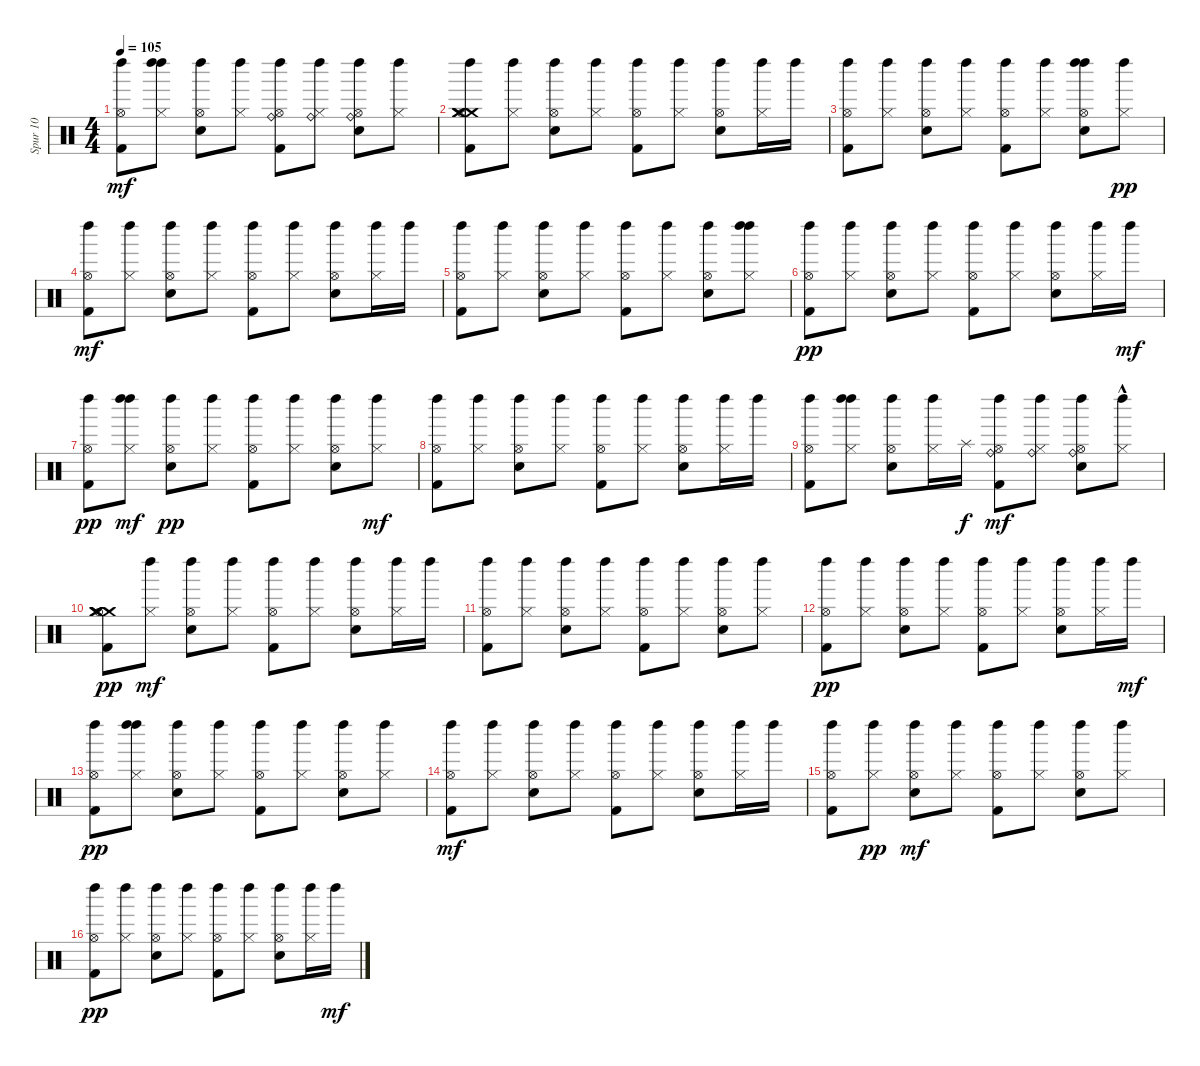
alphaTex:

\track ("Spur 10" "Spur 10") {instrument percussion}
\staff {score}
\articulation defaults
\ts (4 4)
\tempo 105
\clef neutral
\ks c
("Hi-Hat (open)" "Kick (hit) 2" "Left Maraca (hit)").8{dy mf} ("Hi-Hat (closed)" "Left Maraca (hit)" "Left Maraca (hit)").8 ("Hi-Hat (open)" "Snare (hit) 2" "Left Maraca (hit)").8 ("Hi-Hat (closed)" "Left Maraca (hit)").8 ("Hi-Hat (open)" "Kick (hit) 2" "Left Maraca (hit)" "Ride (bell)").8 ("Hi-Hat (closed)" "Left Maraca (hit)" "Ride (bell)").8 ("Hi-Hat (open)" "Snare (hit) 2" "Left Maraca (hit)" "Ride (bell)").8 ("Hi-Hat (closed)" "Left Maraca (hit)").8 |
("Crash medium (hit)" "Kick (hit) 2" "Hi-Hat (open)" "Crash medium (hit)" "Crash medium (hit)" "Left Maraca (hit)").8 ("Hi-Hat (closed)" "Left Maraca (hit)").8 ("Snare (hit) 2" "Hi-Hat (open)" "Left Maraca (hit)").8 ("Hi-Hat (closed)" "Left Maraca (hit)").8 ("Kick (hit) 2" "Hi-Hat (open)" "Left Maraca (hit)").8 ("Hi-Hat (closed)" "Left Maraca (hit)").8 ("Snare (hit) 2" "Hi-Hat (open)" "Left Maraca (hit)").8 ("Hi-Hat (closed)" "Left Maraca (hit)").16 "Left Maraca (hit)".16 |
("Kick (hit) 2" "Hi-Hat (open)" "Left Maraca (hit)").8 ("Hi-Hat (closed)" "Left Maraca (hit)").8 ("Snare (hit) 2" "Hi-Hat (open)" "Left Maraca (hit)").8 ("Hi-Hat (closed)" "Left Maraca (hit)").8 ("Kick (hit) 2" "Hi-Hat (open)" "Left Maraca (hit)").8 ("Hi-Hat (closed)" "Left Maraca (hit)").8 ("Snare (hit) 2" "Hi-Hat (open)" "Left Maraca (hit)" "Left Maraca (hit)").8 ("Left Maraca (hit)" "Hi-Hat (closed)").8{dy pp} |
("Hi-Hat (open)" "Kick (hit) 2" "Left Maraca (hit)").8{dy mf} ("Hi-Hat (closed)" "Left Maraca (hit)").8 ("Hi-Hat (open)" "Snare (hit) 2" "Left Maraca (hit)").8 ("Hi-Hat (closed)" "Left Maraca (hit)").8 ("Hi-Hat (open)" "Kick (hit) 2" "Left Maraca (hit)").8 ("Hi-Hat (closed)" "Left Maraca (hit)").8 ("Hi-Hat (open)" "Snare (hit) 2" "Left Maraca (hit)").8 ("Hi-Hat (closed)" "Left Maraca (hit)").16 "Left Maraca (hit)".16 |
("Hi-Hat (open)" "Kick (hit) 2" "Left Maraca (hit)").8 ("Hi-Hat (closed)" "Left Maraca (hit)").8 ("Hi-Hat (open)" "Snare (hit) 2" "Left Maraca (hit)").8 ("Hi-Hat (closed)" "Left Maraca (hit)").8 ("Hi-Hat (open)" "Kick (hit) 2" "Left Maraca (hit)").8 ("Hi-Hat (closed)" "Left Maraca (hit)").8 ("Hi-Hat (open)" "Snare (hit) 2" "Left Maraca (hit)").8 ("Hi-Hat (closed)" "Left Maraca (hit)" "Left Maraca (hit)").8 |
("Left Maraca (hit)" "Hi-Hat (open)" "Kick (hit) 2").8{dy pp} ("Left Maraca (hit)" "Hi-Hat (closed)").8 ("Left Maraca (hit)" "Hi-Hat (open)" "Snare (hit) 2").8 ("Left Maraca (hit)" "Hi-Hat (closed)").8 ("Left Maraca (hit)" "Hi-Hat (open)" "Kick (hit) 2").8 ("Left Maraca (hit)" "Hi-Hat (closed)").8 ("Left Maraca (hit)" "Hi-Hat (open)" "Snare (hit) 2").8 ("Left Maraca (hit)" "Hi-Hat (closed)").16 "Left Maraca (hit)".16{dy mf} |
("Left Maraca (hit)" "Hi-Hat (open)" "Kick (hit) 2").8{dy pp} ("Left Maraca (hit)" "Hi-Hat (closed)" "Left Maraca (hit)").8{dy mf} ("Left Maraca (hit)" "Hi-Hat (open)" "Snare (hit) 2").8{dy pp} ("Left Maraca (hit)" "Hi-Hat (closed)").8 ("Left Maraca (hit)" "Hi-Hat (open)" "Kick (hit) 2").8 ("Left Maraca (hit)" "Hi-Hat (closed)").8 ("Left Maraca (hit)" "Hi-Hat (open)" "Snare (hit) 2").8 ("Hi-Hat (closed)" "Left Maraca (hit)").8{dy mf} |
("Hi-Hat (open)" "Kick (hit) 2" "Left Maraca (hit)").8{volume 16 balance 8} ("Hi-Hat (closed)" "Left Maraca (hit)").8 ("Hi-Hat (open)" "Snare (hit) 2" "Left Maraca (hit)").8 ("Hi-Hat (closed)" "Left Maraca (hit)").8 ("Hi-Hat (open)" "Kick (hit) 2" "Left Maraca (hit)").8 ("Hi-Hat (closed)" "Left Maraca (hit)").8 ("Hi-Hat (open)" "Snare (hit) 2" "Left Maraca (hit)").8 ("Hi-Hat (closed)" "Left Maraca (hit)").16 "Left Maraca (hit)".16 |
("Hi-Hat (open)" "Kick (hit) 2" "Left Maraca (hit)").8 ("Hi-Hat (closed)" "Left Maraca (hit)" "Left Maraca (hit)").8 ("Hi-Hat (open)" "Snare (hit) 2" "Left Maraca (hit)").8 ("Hi-Hat (closed)" "Left Maraca (hit)").16 "Splash (hit)".16{dy f} ("Hi-Hat (open)" "Kick (hit) 2" "Left Maraca (hit)" "Ride (bell)").8{dy mf} ("Hi-Hat (closed)" "Left Maraca (hit)" "Ride (bell)").8 ("Hi-Hat (open)" "Snare (hit) 2" "Left Maraca (hit)" "Ride (bell)").8 ("Hi-Hat (closed)" "Left Maraca (hit)"{hac}).8 |
("Crash medium (hit)" "Crash medium (hit)" "Crash medium (hit)" "Crash medium (hit)" "Hi-Hat (open)" "Kick (hit) 2").8{dy pp} ("Hi-Hat (closed)" "Left Maraca (hit)").8{dy mf} ("Hi-Hat (open)" "Snare (hit) 2" "Left Maraca (hit)").8 ("Hi-Hat (closed)" "Left Maraca (hit)").8 ("Hi-Hat (open)" "Kick (hit) 2" "Left Maraca (hit)").8 ("Hi-Hat (closed)" "Left Maraca (hit)").8 ("Hi-Hat (open)" "Snare (hit) 2" "Left Maraca (hit)").8 ("Hi-Hat (closed)" "Left Maraca (hit)").16 "Left Maraca (hit)".16 |
("Hi-Hat (open)" "Kick (hit) 2" "Left Maraca (hit)").8 ("Hi-Hat (closed)" "Left Maraca (hit)").8 ("Hi-Hat (open)" "Snare (hit) 2" "Left Maraca (hit)").8 ("Hi-Hat (closed)" "Left Maraca (hit)").8 ("Hi-Hat (open)" "Kick (hit) 2" "Left Maraca (hit)").8 ("Hi-Hat (closed)" "Left Maraca (hit)").8 ("Hi-Hat (open)" "Snare (hit) 2" "Left Maraca (hit)").8 ("Hi-Hat (closed)" "Left Maraca (hit)").8 |
("Left Maraca (hit)" "Kick (hit) 2" "Hi-Hat (open)").8{dy pp} ("Left Maraca (hit)" "Hi-Hat (closed)").8 ("Left Maraca (hit)" "Snare (hit) 2" "Hi-Hat (open)").8 ("Left Maraca (hit)" "Hi-Hat (closed)").8 ("Left Maraca (hit)" "Kick (hit) 2" "Hi-Hat (open)").8 ("Left Maraca (hit)" "Hi-Hat (closed)").8 ("Left Maraca (hit)" "Snare (hit) 2" "Hi-Hat (open)").8 ("Left Maraca (hit)" "Hi-Hat (closed)").16 "Left Maraca (hit)".16{dy mf} |
("Left Maraca (hit)" "Kick (hit) 2" "Hi-Hat (open)").8{dy pp} ("Left Maraca (hit)" "Left Maraca (hit)" "Hi-Hat (closed)").8 ("Left Maraca (hit)" "Snare (hit) 2" "Hi-Hat (open)").8 ("Left Maraca (hit)" "Hi-Hat (closed)").8 ("Left Maraca (hit)" "Kick (hit) 2" "Hi-Hat (open)").8 ("Left Maraca (hit)" "Hi-Hat (closed)").8 ("Left Maraca (hit)" "Snare (hit) 2" "Hi-Hat (open)").8 ("Left Maraca (hit)" "Hi-Hat (closed)").8 |
("Kick (hit) 2" "Hi-Hat (open)" "Left Maraca (hit)").8{dy mf} ("Hi-Hat (closed)" "Left Maraca (hit)").8 ("Snare (hit) 2" "Hi-Hat (open)" "Left Maraca (hit)").8 ("Hi-Hat (closed)" "Left Maraca (hit)").8 ("Kick (hit) 2" "Hi-Hat (open)" "Left Maraca (hit)").8 ("Hi-Hat (closed)" "Left Maraca (hit)").8 ("Snare (hit) 2" "Hi-Hat (open)" "Left Maraca (hit)").8 ("Hi-Hat (closed)" "Left Maraca (hit)").16 "Left Maraca (hit)".16 |
("Kick (hit) 2" "Hi-Hat (open)" "Left Maraca (hit)").8 ("Left Maraca (hit)" "Hi-Hat (closed)").8{dy pp} ("Snare (hit) 2" "Hi-Hat (open)" "Left Maraca (hit)").8{dy mf} ("Hi-Hat (closed)" "Left Maraca (hit)").8 ("Kick (hit) 2" "Hi-Hat (open)" "Left Maraca (hit)").8 ("Hi-Hat (closed)" "Left Maraca (hit)").8 ("Snare (hit) 2" "Hi-Hat (open)" "Left Maraca (hit)").8 ("Hi-Hat (closed)" "Left Maraca (hit)").8 |
("Left Maraca (hit)" "Hi-Hat (open)" "Kick (hit) 2").8{dy pp} ("Left Maraca (hit)" "Hi-Hat (closed)").8 ("Left Maraca (hit)" "Hi-Hat (open)" "Snare (hit) 2").8 ("Left Maraca (hit)" "Hi-Hat (closed)").8 ("Left Maraca (hit)" "Hi-Hat (open)" "Kick (hit) 2").8 ("Left Maraca (hit)" "Hi-Hat (closed)").8 ("Left Maraca (hit)" "Hi-Hat (open)" "Snare (hit) 2").8 ("Left Maraca (hit)" "Hi-Hat (closed)").16 "Left Maraca (hit)".16{dy mf}
